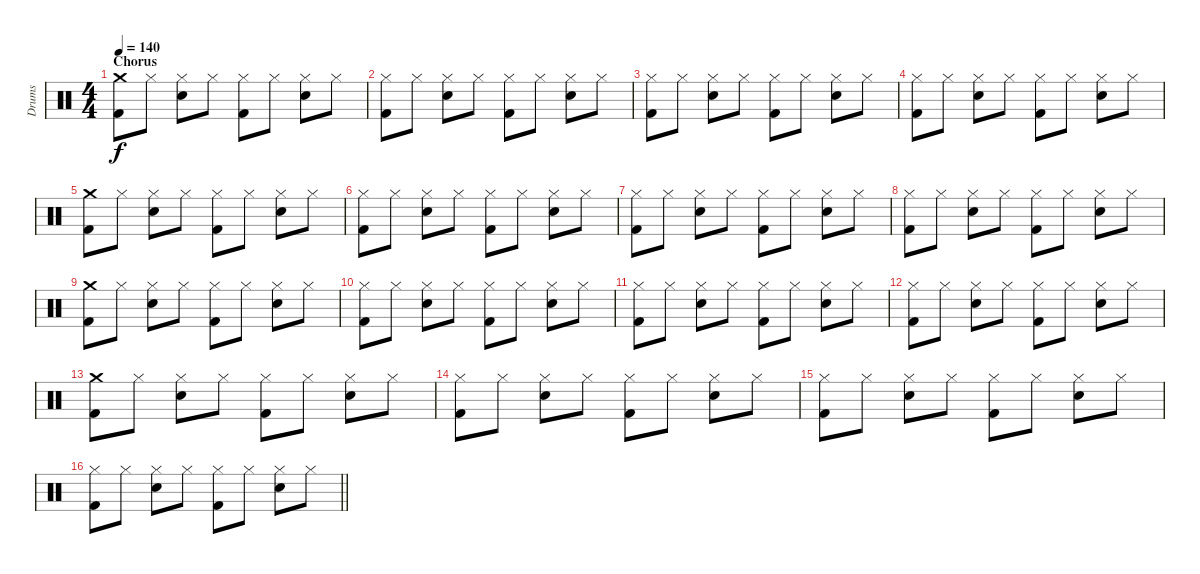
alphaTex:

\track ("Drums" "Drums") {instrument percussion}
\staff {score}
\articulation defaults
\ts (4 4)
\section ("" "Chorus")
\tempo 140
\clef neutral
\ks c
("Crash medium (hit)" "Kick (hit) 2").8{dy f} "Hi-Hat (closed)".8 ("Hi-Hat (closed)" "Electric Snare (hit)").8 "Hi-Hat (closed)".8 ("Hi-Hat (closed)" "Kick (hit) 2").8 "Hi-Hat (closed)".8 ("Hi-Hat (closed)" "Electric Snare (hit)").8 "Hi-Hat (closed)".8 |
("Hi-Hat (closed)" "Kick (hit) 2").8 "Hi-Hat (closed)".8 ("Hi-Hat (closed)" "Electric Snare (hit)").8 "Hi-Hat (closed)".8 ("Hi-Hat (closed)" "Kick (hit) 2").8 "Hi-Hat (closed)".8 ("Hi-Hat (closed)" "Electric Snare (hit)").8 "Hi-Hat (closed)".8 |
("Hi-Hat (closed)" "Kick (hit) 2").8 "Hi-Hat (closed)".8 ("Hi-Hat (closed)" "Electric Snare (hit)").8 "Hi-Hat (closed)".8 ("Hi-Hat (closed)" "Kick (hit) 2").8 "Hi-Hat (closed)".8 ("Hi-Hat (closed)" "Electric Snare (hit)").8 "Hi-Hat (closed)".8 |
("Hi-Hat (closed)" "Kick (hit) 2").8 "Hi-Hat (closed)".8 ("Hi-Hat (closed)" "Electric Snare (hit)").8 "Hi-Hat (closed)".8 ("Hi-Hat (closed)" "Kick (hit) 2").8 "Hi-Hat (closed)".8 ("Hi-Hat (closed)" "Electric Snare (hit)").8 "Hi-Hat (closed)".8 |
("Crash medium (hit)" "Kick (hit) 2").8 "Hi-Hat (closed)".8 ("Hi-Hat (closed)" "Electric Snare (hit)").8 "Hi-Hat (closed)".8 ("Hi-Hat (closed)" "Kick (hit) 2").8 "Hi-Hat (closed)".8 ("Hi-Hat (closed)" "Electric Snare (hit)").8 "Hi-Hat (closed)".8 |
("Hi-Hat (closed)" "Kick (hit) 2").8 "Hi-Hat (closed)".8 ("Hi-Hat (closed)" "Electric Snare (hit)").8 "Hi-Hat (closed)".8 ("Hi-Hat (closed)" "Kick (hit) 2").8 "Hi-Hat (closed)".8 ("Hi-Hat (closed)" "Electric Snare (hit)").8 "Hi-Hat (closed)".8 |
("Hi-Hat (closed)" "Kick (hit) 2").8 "Hi-Hat (closed)".8 ("Hi-Hat (closed)" "Electric Snare (hit)").8 "Hi-Hat (closed)".8 ("Hi-Hat (closed)" "Kick (hit) 2").8 "Hi-Hat (closed)".8 ("Hi-Hat (closed)" "Electric Snare (hit)").8 "Hi-Hat (closed)".8 |
("Hi-Hat (closed)" "Kick (hit) 2").8 "Hi-Hat (closed)".8 ("Hi-Hat (closed)" "Electric Snare (hit)").8 "Hi-Hat (closed)".8 ("Hi-Hat (closed)" "Kick (hit) 2").8 "Hi-Hat (closed)".8 ("Hi-Hat (closed)" "Electric Snare (hit)").8 "Hi-Hat (closed)".8 |
("Crash medium (hit)" "Kick (hit) 2").8 "Hi-Hat (closed)".8 ("Hi-Hat (closed)" "Electric Snare (hit)").8 "Hi-Hat (closed)".8 ("Hi-Hat (closed)" "Kick (hit) 2").8 "Hi-Hat (closed)".8 ("Hi-Hat (closed)" "Electric Snare (hit)").8 "Hi-Hat (closed)".8 |
("Hi-Hat (closed)" "Kick (hit) 2").8 "Hi-Hat (closed)".8 ("Hi-Hat (closed)" "Electric Snare (hit)").8 "Hi-Hat (closed)".8 ("Hi-Hat (closed)" "Kick (hit) 2").8 "Hi-Hat (closed)".8 ("Hi-Hat (closed)" "Electric Snare (hit)").8 "Hi-Hat (closed)".8 |
("Hi-Hat (closed)" "Kick (hit) 2").8 "Hi-Hat (closed)".8 ("Hi-Hat (closed)" "Electric Snare (hit)").8 "Hi-Hat (closed)".8 ("Hi-Hat (closed)" "Kick (hit) 2").8 "Hi-Hat (closed)".8 ("Hi-Hat (closed)" "Electric Snare (hit)").8 "Hi-Hat (closed)".8 |
("Hi-Hat (closed)" "Kick (hit) 2").8 "Hi-Hat (closed)".8 ("Hi-Hat (closed)" "Electric Snare (hit)").8 "Hi-Hat (closed)".8 ("Hi-Hat (closed)" "Kick (hit) 2").8 "Hi-Hat (closed)".8 ("Hi-Hat (closed)" "Electric Snare (hit)").8 "Hi-Hat (closed)".8 |
("Crash medium (hit)" "Kick (hit) 2").8 "Hi-Hat (closed)".8 ("Hi-Hat (closed)" "Electric Snare (hit)").8 "Hi-Hat (closed)".8 ("Hi-Hat (closed)" "Kick (hit) 2").8 "Hi-Hat (closed)".8 ("Hi-Hat (closed)" "Electric Snare (hit)").8 "Hi-Hat (closed)".8 |
("Hi-Hat (closed)" "Kick (hit) 2").8 "Hi-Hat (closed)".8 ("Hi-Hat (closed)" "Electric Snare (hit)").8 "Hi-Hat (closed)".8 ("Hi-Hat (closed)" "Kick (hit) 2").8 "Hi-Hat (closed)".8 ("Hi-Hat (closed)" "Electric Snare (hit)").8 "Hi-Hat (closed)".8 |
("Hi-Hat (closed)" "Kick (hit) 2").8 "Hi-Hat (closed)".8 ("Hi-Hat (closed)" "Electric Snare (hit)").8 "Hi-Hat (closed)".8 ("Hi-Hat (closed)" "Kick (hit) 2").8 "Hi-Hat (closed)".8 ("Hi-Hat (closed)" "Electric Snare (hit)").8 "Hi-Hat (closed)".8 |
\barLineRight lightlight
("Hi-Hat (closed)" "Kick (hit) 2").8 "Hi-Hat (closed)".8 ("Hi-Hat (closed)" "Electric Snare (hit)").8 "Hi-Hat (closed)".8 ("Hi-Hat (closed)" "Kick (hit) 2").8 "Hi-Hat (closed)".8 ("Hi-Hat (closed)" "Electric Snare (hit)").8 "Hi-Hat (closed)".8
